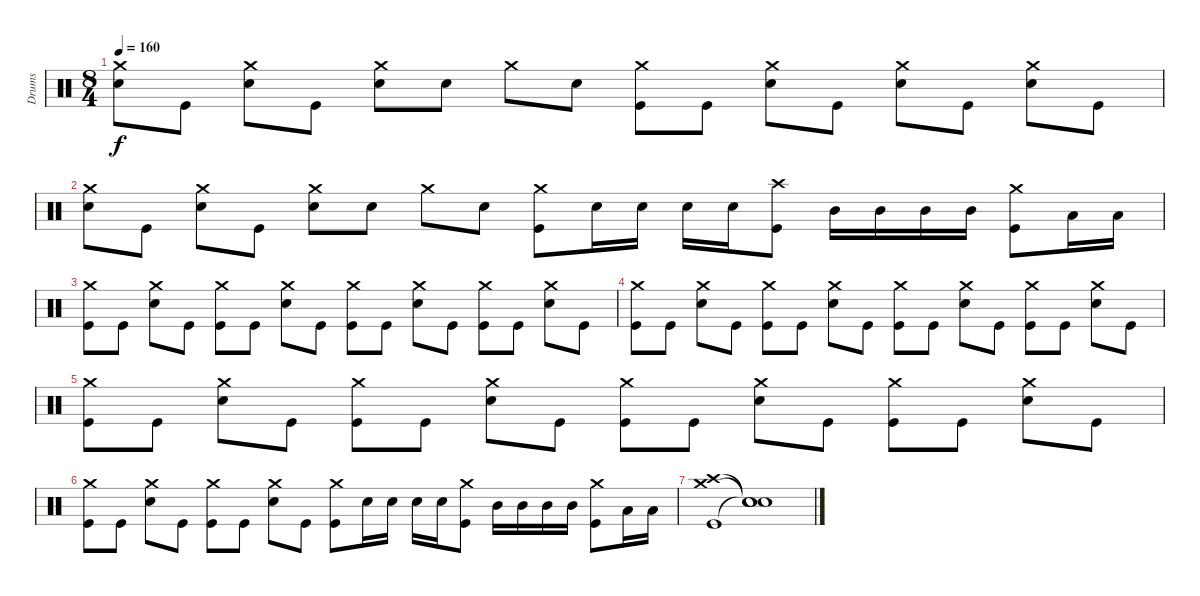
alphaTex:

\track ("Drums" "Drums") {instrument percussion}
\staff {score}
\articulation defaults
\ts (8 4)
\tempo 160
\clef neutral
\ks c
("Crash medium (hit)" "Snare (hit) 2").8{dy f} "Kick (hit)".8 ("Crash medium (hit)" "Snare (hit) 2").8 "Kick (hit)".8 ("Crash medium (hit)" "Snare (hit) 2").8 "Snare (hit) 2".8 "Crash medium (hit)".8 "Snare (hit) 2".8 ("Crash medium (hit)" "Kick (hit)").8 "Kick (hit)".8 ("Crash medium (hit)" "Snare (hit) 2").8 "Kick (hit)".8 ("Crash medium (hit)" "Snare (hit) 2").8 "Kick (hit)".8 ("Crash medium (hit)" "Snare (hit) 2").8 "Kick (hit)".8 |
("Crash medium (hit)" "Snare (hit) 2").8 "Kick (hit)".8 ("Crash medium (hit)" "Snare (hit) 2").8 "Kick (hit)".8 ("Crash medium (hit)" "Snare (hit) 2").8 "Snare (hit) 2".8 "Crash medium (hit)".8 "Snare (hit) 2".8 ("Crash medium (hit)" "Kick (hit)").8 "Snare (hit) 2".16 "Snare (hit) 2".16 "Snare (hit) 2".16 "Snare (hit) 2".16 ("Crash high (hit)" "Kick (hit)").8 "Mid Tom (hit)".16 "Mid Tom (hit)".16 "Mid Tom (hit)".16 "Mid Tom (hit)".16 ("Crash medium (hit)" "Kick (hit)").8 "Low Floor Tom (hit)".16 "Low Floor Tom (hit)".16 |
("Crash medium (hit)" "Kick (hit)").8 "Kick (hit)".8 ("Crash medium (hit)" "Snare (hit) 2").8 "Kick (hit)".8 ("Crash medium (hit)" "Kick (hit)").8 "Kick (hit)".8 ("Crash medium (hit)" "Snare (hit) 2").8 "Kick (hit)".8 ("Crash medium (hit)" "Kick (hit)").8 "Kick (hit)".8 ("Crash medium (hit)" "Snare (hit) 2").8 "Kick (hit)".8 ("Crash medium (hit)" "Kick (hit)").8 "Kick (hit)".8 ("Crash medium (hit)" "Snare (hit) 2").8 "Kick (hit)".8 |
("Crash medium (hit)" "Kick (hit)").8 "Kick (hit)".8 ("Crash medium (hit)" "Snare (hit) 2").8 "Kick (hit)".8 ("Crash medium (hit)" "Kick (hit)").8 "Kick (hit)".8 ("Crash medium (hit)" "Snare (hit) 2").8 "Kick (hit)".8 ("Crash medium (hit)" "Kick (hit)").8 "Kick (hit)".8 ("Crash medium (hit)" "Snare (hit) 2").8 "Kick (hit)".8 ("Crash medium (hit)" "Kick (hit)").8 "Kick (hit)".8 ("Crash medium (hit)" "Snare (hit) 2").8 "Kick (hit)".8 |
("Crash medium (hit)" "Kick (hit)").8 "Kick (hit)".8 ("Crash medium (hit)" "Snare (hit) 2").8 "Kick (hit)".8 ("Crash medium (hit)" "Kick (hit)").8 "Kick (hit)".8 ("Crash medium (hit)" "Snare (hit) 2").8 "Kick (hit)".8 ("Crash medium (hit)" "Kick (hit)").8 "Kick (hit)".8 ("Crash medium (hit)" "Snare (hit) 2").8 "Kick (hit)".8 ("Crash medium (hit)" "Kick (hit)").8 "Kick (hit)".8 ("Crash medium (hit)" "Snare (hit) 2").8 "Kick (hit)".8 |
("Crash medium (hit)" "Kick (hit)").8 "Kick (hit)".8 ("Crash medium (hit)" "Snare (hit) 2").8 "Kick (hit)".8 ("Crash medium (hit)" "Kick (hit)").8 "Kick (hit)".8 ("Crash medium (hit)" "Snare (hit) 2").8 "Kick (hit)".8 ("Crash medium (hit)" "Kick (hit)").8 "Snare (hit) 2".16 "Snare (hit) 2".16 "Snare (hit) 2".16 "Snare (hit) 2".16 ("Crash medium (hit)" "Kick (hit)").8 "Mid Tom (hit)".16 "Mid Tom (hit)".16 "Mid Tom (hit)".16 "Mid Tom (hit)".16 ("Crash medium (hit)" "Kick (hit)").8 "Low Floor Tom (hit)".16 "Low Floor Tom (hit)".16 |
("Crash medium (hit)" "Crash high (hit)" "Kick (hit)").1 ("Snare (hit)"{t} "Snare (hit)"{t} "Snare (hit)"{t}).1
